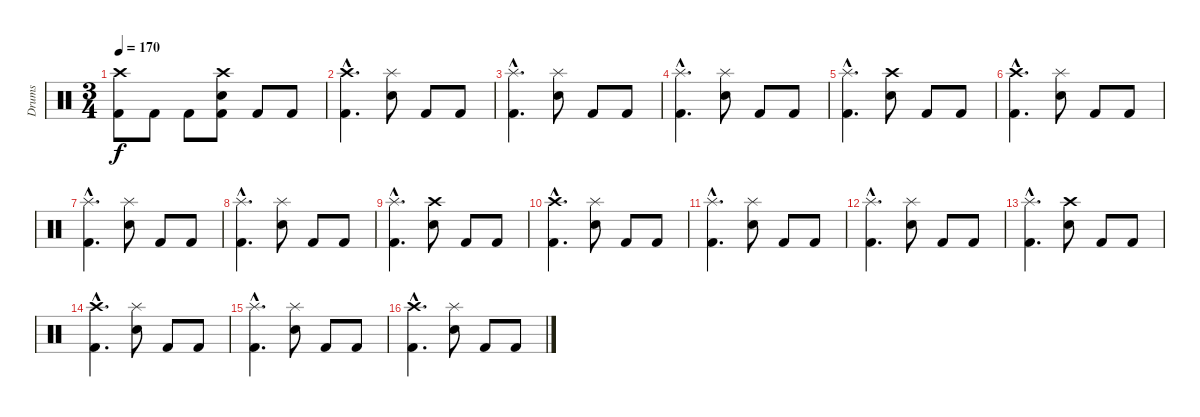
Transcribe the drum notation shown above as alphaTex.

\track ("Drums" "Drums") {instrument percussion}
\staff {score}
\articulation defaults
\ts (3 4)
\tempo 170
\clef neutral
\ks c
("Crash high (hit)" "Kick (hit) 2").8{dy f} "Kick (hit) 2".8 "Kick (hit) 2".8 ("Crash high (hit)" "Electric Snare (hit)" "Kick (hit) 2").8 "Kick (hit) 2".8 "Kick (hit) 2".8 |
("Crash high (hit)"{hac} "Kick (hit) 2"{hac}).4{d} ("Splash (hit)" "Electric Snare (hit)").8 "Kick (hit) 2".8 "Kick (hit) 2".8 |
("Splash (hit)"{hac} "Kick (hit) 2"{hac}).4{d} ("Splash (hit)" "Electric Snare (hit)").8 "Kick (hit) 2".8 "Kick (hit) 2".8 |
("Splash (hit)"{hac} "Kick (hit) 2"{hac}).4{d} ("Splash (hit)" "Electric Snare (hit)").8 "Kick (hit) 2".8 "Kick (hit) 2".8 |
("Splash (hit)"{hac} "Kick (hit) 2"{hac}).4{d} ("Crash high (hit)" "Electric Snare (hit)").8 "Kick (hit) 2".8 "Kick (hit) 2".8 |
("Crash high (hit)"{hac} "Kick (hit) 2"{hac}).4{d} ("Splash (hit)" "Electric Snare (hit)").8 "Kick (hit) 2".8 "Kick (hit) 2".8 |
("Splash (hit)"{hac} "Kick (hit) 2"{hac}).4{d} ("Splash (hit)" "Electric Snare (hit)").8 "Kick (hit) 2".8 "Kick (hit) 2".8 |
("Splash (hit)"{hac} "Kick (hit) 2"{hac}).4{d} ("Splash (hit)" "Electric Snare (hit)").8 "Kick (hit) 2".8 "Kick (hit) 2".8 |
("Splash (hit)"{hac} "Kick (hit) 2"{hac}).4{d} ("Crash high (hit)" "Electric Snare (hit)").8 "Kick (hit) 2".8 "Kick (hit) 2".8 |
("Crash high (hit)"{hac} "Kick (hit) 2"{hac}).4{d} ("Splash (hit)" "Electric Snare (hit)").8 "Kick (hit) 2".8 "Kick (hit) 2".8 |
("Splash (hit)"{hac} "Kick (hit) 2"{hac}).4{d} ("Splash (hit)" "Electric Snare (hit)").8 "Kick (hit) 2".8 "Kick (hit) 2".8 |
("Splash (hit)"{hac} "Kick (hit) 2"{hac}).4{d} ("Splash (hit)" "Electric Snare (hit)").8 "Kick (hit) 2".8 "Kick (hit) 2".8 |
("Splash (hit)"{hac} "Kick (hit) 2"{hac}).4{d} ("Crash high (hit)" "Electric Snare (hit)").8 "Kick (hit) 2".8 "Kick (hit) 2".8 |
("Crash high (hit)"{hac} "Kick (hit) 2"{hac}).4{d} ("Splash (hit)" "Electric Snare (hit)").8 "Kick (hit) 2".8 "Kick (hit) 2".8 |
("Splash (hit)"{hac} "Kick (hit) 2"{hac}).4{d} ("Splash (hit)" "Electric Snare (hit)").8 "Kick (hit) 2".8 "Kick (hit) 2".8 |
("Crash high (hit)"{hac} "Kick (hit) 2"{hac}).4{d} ("Splash (hit)" "Electric Snare (hit)").8 "Kick (hit) 2".8 "Kick (hit) 2".8
